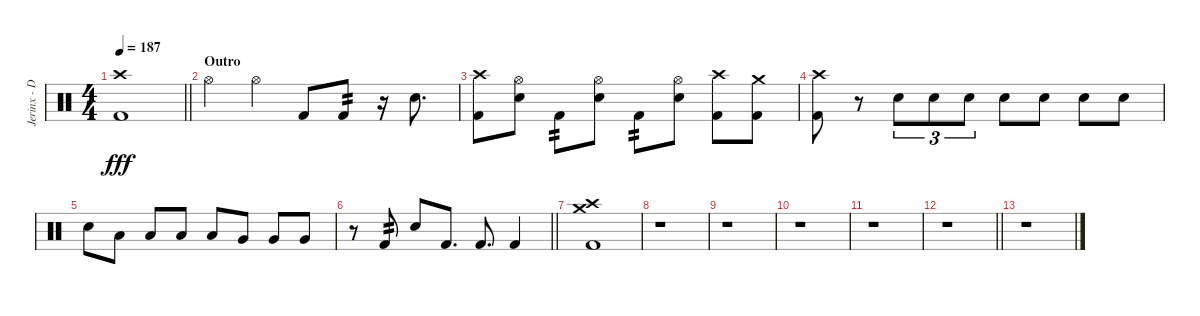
\track ("Jerinx - Drum" "Jerinx - D") {instrument percussion}
\staff {score}
\articulation defaults
\ts (4 4)
\tempo 187
\clef neutral
\barLineRight lightlight
\ks c
("Kick (hit) 2" "Crash high (hit)").1{dy fff} |
\section ("" "Outro")
"Hi-Hat (open)".4 "Hi-Hat (open)".4 "Kick (hit) 2".8 "Kick (hit) 2".8{tp 2} r.16 "Snare (hit) 2".8{d} |
("Kick (hit) 2" "Crash high (hit)").8 ("Hi-Hat (open)" "Snare (hit) 2").8 "Kick (hit) 2".8{tp 2} ("Hi-Hat (open)" "Snare (hit) 2").8 "Kick (hit) 2".8{tp 2} ("Hi-Hat (open)" "Snare (hit) 2").8 ("Kick (hit) 2" "Crash high (hit)").8 ("Kick (hit) 2" "Crash medium (hit)").8 |
("Kick (hit) 2" "Crash high (hit)").8 r.8 "Snare (hit) 2".8{tu (3 2)} "Snare (hit) 2".8{tu (3 2)} "Snare (hit) 2".8{tu (3 2)} "Snare (hit) 2".8 "Snare (hit) 2".8 "Snare (hit) 2".8 "Snare (hit) 2".8 |
"Snare (hit) 2".8 "Low Tom (hit)".8 "Low Tom (hit)".8 "Low Tom (hit)".8 "Low Tom (hit)".8 "Very Low Tom (hit)".8 "Very Low Tom (hit)".8 "Very Low Tom (hit)".8 |
\barLineRight lightlight
r.8 "Kick (hit) 2".8{tp 2} "Snare (hit) 2".8 "Kick (hit) 2".8{d} "Kick (hit) 2".8{d} "Kick (hit) 2".4 |
("Kick (hit) 2" "Crash medium (hit)" "Crash high (hit)").1 |
r.1 |
r.1 |
r.1 |
r.1 |
\barLineRight lightlight
r.1 |
r.1
